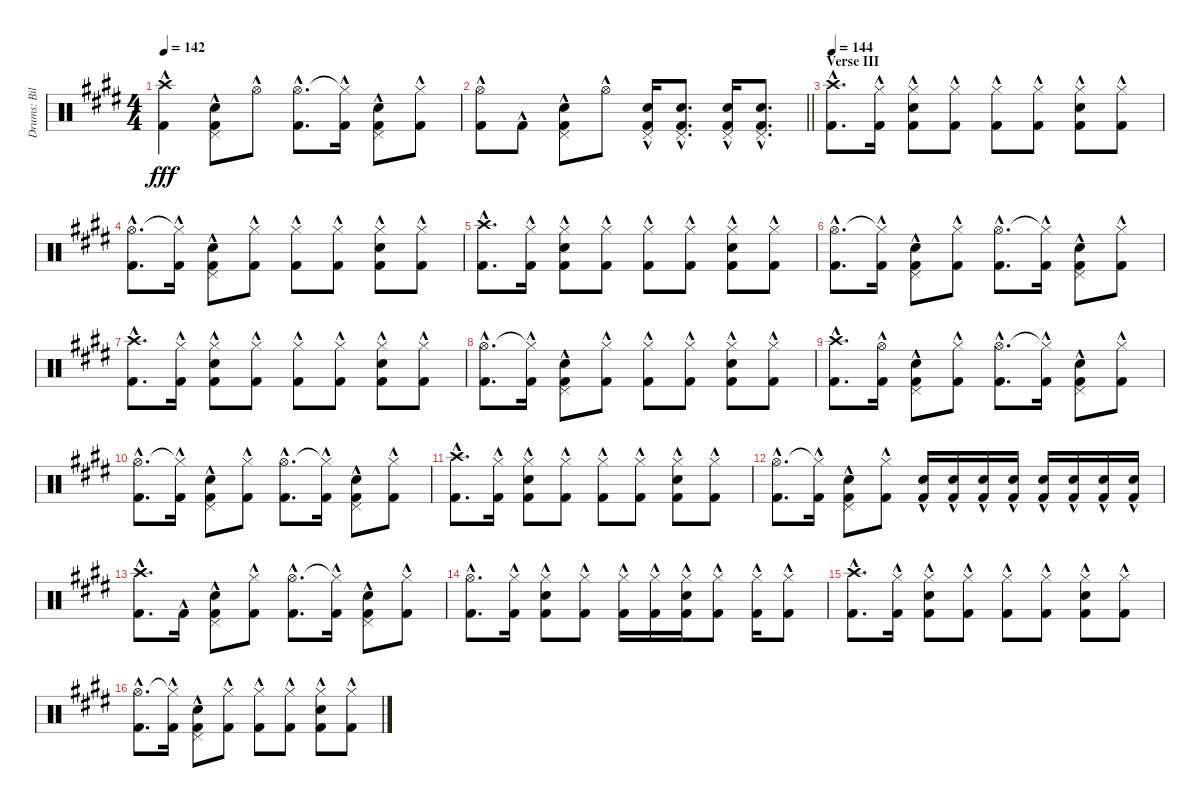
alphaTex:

\track ("Drums: Bill" "Drums: Bil") {instrument percussion}
\staff {score}
\articulation defaults
\ts (4 4)
\tempo 142
\clef neutral
\ks e
("Crash high (hit)"{hac} "Kick (hit) 2"{hac}).4{dy fff} ("Pedal Hi-Hat (hit)"{hac} "Snare (hit) 2"{hac} "Kick (hit) 2"{hac}).8 "Hi-Hat (open)"{hac}.8 ("Hi-Hat (open)"{hac} "Kick (hit) 2"{hac}).8{d} ("Hi-Hat (closed)"{t} "Kick (hit) 2"{hac}).16 ("Pedal Hi-Hat (hit)"{hac} "Snare (hit) 2"{hac} "Kick (hit) 2"{hac}).8 ("Hi-Hat (closed)"{hac} "Kick (hit) 2"{hac}).8 |
\barLineRight lightlight
("Hi-Hat (open)"{hac} "Kick (hit) 2"{hac}).8 "Kick (hit) 2"{hac}.8 ("Pedal Hi-Hat (hit)"{hac} "Snare (hit) 2"{hac} "Kick (hit) 2"{hac}).8 "Hi-Hat (open)"{hac}.8 ("Pedal Hi-Hat (hit)"{hac} "Snare (hit) 2"{hac} "Kick (hit) 2"{hac}).16 ("Pedal Hi-Hat (hit)"{hac} "Snare (hit) 2"{hac} "Kick (hit) 2"{hac}).8{d} ("Pedal Hi-Hat (hit)"{hac} "Snare (hit) 2"{hac} "Kick (hit) 2"{hac}).16 ("Pedal Hi-Hat (hit)"{hac} "Snare (hit) 2"{hac} "Kick (hit) 2"{hac}).8{d} |
\section ("" "Verse III")
\tempo 144
("Crash high (hit)"{hac} "Kick (hit) 2"{hac}).8{d} ("Hi-Hat (closed)"{hac} "Kick (hit) 2"{hac}).16 ("Hi-Hat (closed)"{hac} "Snare (hit) 2"{hac} "Kick (hit) 2"{hac}).8 ("Hi-Hat (closed)"{hac} "Kick (hit) 2"{hac}).8 ("Hi-Hat (closed)"{hac} "Kick (hit) 2"{hac}).8 ("Hi-Hat (closed)"{hac} "Kick (hit) 2"{hac}).8 ("Hi-Hat (closed)"{hac} "Snare (hit) 2"{hac} "Kick (hit) 2"{hac}).8 ("Hi-Hat (closed)"{hac} "Kick (hit) 2"{hac}).8 |
("Hi-Hat (open)"{hac} "Kick (hit) 2"{hac}).8{d} ("Hi-Hat (closed)"{t} "Kick (hit) 2"{hac}).16 ("Pedal Hi-Hat (hit)"{hac} "Snare (hit) 2"{hac} "Kick (hit) 2"{hac}).8 ("Hi-Hat (closed)"{hac} "Kick (hit) 2"{hac}).8 ("Hi-Hat (closed)"{hac} "Kick (hit) 2"{hac}).8 ("Hi-Hat (closed)"{hac} "Kick (hit) 2"{hac}).8 ("Hi-Hat (closed)"{hac} "Snare (hit) 2"{hac} "Kick (hit) 2"{hac}).8 ("Hi-Hat (closed)"{hac} "Kick (hit) 2"{hac}).8 |
("Crash high (hit)"{hac} "Kick (hit) 2"{hac}).8{d} ("Hi-Hat (closed)"{hac} "Kick (hit) 2"{hac}).16 ("Hi-Hat (closed)"{hac} "Snare (hit) 2"{hac} "Kick (hit) 2"{hac}).8 ("Hi-Hat (closed)"{hac} "Kick (hit) 2"{hac}).8 ("Hi-Hat (closed)"{hac} "Kick (hit) 2"{hac}).8 ("Hi-Hat (closed)"{hac} "Kick (hit) 2"{hac}).8 ("Hi-Hat (closed)"{hac} "Snare (hit) 2"{hac} "Kick (hit) 2"{hac}).8 ("Hi-Hat (closed)"{hac} "Kick (hit) 2"{hac}).8 |
("Hi-Hat (open)"{hac} "Kick (hit) 2"{hac}).8{d} ("Hi-Hat (closed)"{t} "Kick (hit) 2"{hac}).16 ("Pedal Hi-Hat (hit)"{hac} "Snare (hit) 2"{hac} "Kick (hit) 2"{hac}).8 ("Hi-Hat (closed)"{hac} "Kick (hit) 2"{hac}).8 ("Hi-Hat (open)"{hac} "Kick (hit) 2"{hac}).8{d} ("Hi-Hat (closed)"{t} "Kick (hit) 2"{hac}).16 ("Pedal Hi-Hat (hit)"{hac} "Snare (hit) 2"{hac} "Kick (hit) 2"{hac}).8 ("Hi-Hat (closed)"{hac} "Kick (hit) 2"{hac}).8 |
("Crash high (hit)"{hac} "Kick (hit) 2"{hac}).8{d} ("Hi-Hat (closed)"{hac} "Kick (hit) 2"{hac}).16 ("Hi-Hat (closed)"{hac} "Snare (hit) 2"{hac} "Kick (hit) 2"{hac}).8 ("Hi-Hat (closed)"{hac} "Kick (hit) 2"{hac}).8 ("Hi-Hat (closed)"{hac} "Kick (hit) 2"{hac}).8 ("Hi-Hat (closed)"{hac} "Kick (hit) 2"{hac}).8 ("Hi-Hat (closed)"{hac} "Snare (hit) 2"{hac} "Kick (hit) 2"{hac}).8 ("Hi-Hat (closed)"{hac} "Kick (hit) 2"{hac}).8 |
("Hi-Hat (open)"{hac} "Kick (hit) 2"{hac}).8{d} ("Hi-Hat (closed)"{t} "Kick (hit) 2"{hac}).16 ("Pedal Hi-Hat (hit)"{hac} "Snare (hit) 2"{hac} "Kick (hit) 2"{hac}).8 ("Hi-Hat (closed)"{hac} "Kick (hit) 2"{hac}).8 ("Hi-Hat (closed)"{hac} "Kick (hit) 2"{hac}).8 ("Hi-Hat (closed)"{hac} "Kick (hit) 2"{hac}).8 ("Hi-Hat (closed)"{hac} "Snare (hit) 2"{hac} "Kick (hit) 2"{hac}).8 ("Hi-Hat (closed)"{hac} "Kick (hit) 2"{hac}).8 |
("Crash high (hit)"{hac} "Kick (hit) 2"{hac}).8{d} ("Hi-Hat (open)"{hac} "Kick (hit) 2"{hac}).16 ("Pedal Hi-Hat (hit)"{hac} "Snare (hit) 2"{hac} "Kick (hit) 2"{hac}).8 ("Hi-Hat (closed)"{hac} "Kick (hit) 2"{hac}).8 ("Hi-Hat (open)"{hac} "Kick (hit) 2"{hac}).8{d} ("Hi-Hat (closed)"{t} "Kick (hit) 2"{hac}).16 ("Pedal Hi-Hat (hit)"{hac} "Snare (hit) 2"{hac} "Kick (hit) 2"{hac}).8 ("Hi-Hat (closed)"{hac} "Kick (hit) 2"{hac}).8 |
("Hi-Hat (open)"{hac} "Kick (hit) 2"{hac}).8{d} ("Hi-Hat (closed)"{t} "Kick (hit) 2"{hac}).16 ("Pedal Hi-Hat (hit)"{hac} "Snare (hit) 2"{hac} "Kick (hit) 2"{hac}).8 ("Hi-Hat (closed)"{hac} "Kick (hit) 2"{hac}).8 ("Hi-Hat (open)"{hac} "Kick (hit) 2"{hac}).8{d} ("Hi-Hat (closed)"{t} "Kick (hit) 2"{hac}).16 ("Pedal Hi-Hat (hit)"{hac} "Snare (hit) 2"{hac} "Kick (hit) 2"{hac}).8 ("Hi-Hat (closed)"{hac} "Kick (hit) 2"{hac}).8 |
("Crash high (hit)"{hac} "Kick (hit) 2"{hac}).8{d} ("Hi-Hat (closed)"{hac} "Kick (hit) 2"{hac}).16 ("Hi-Hat (closed)"{hac} "Snare (hit) 2"{hac} "Kick (hit) 2"{hac}).8 ("Hi-Hat (closed)"{hac} "Kick (hit) 2"{hac}).8 ("Hi-Hat (closed)"{hac} "Kick (hit) 2"{hac}).8 ("Hi-Hat (closed)"{hac} "Kick (hit) 2"{hac}).8 ("Hi-Hat (closed)"{hac} "Snare (hit) 2"{hac} "Kick (hit) 2"{hac}).8 ("Hi-Hat (closed)"{hac} "Kick (hit) 2"{hac}).8 |
("Hi-Hat (open)"{hac} "Kick (hit) 2"{hac}).8{d} ("Hi-Hat (closed)"{t} "Kick (hit) 2"{hac}).16 ("Pedal Hi-Hat (hit)"{hac} "Snare (hit) 2"{hac} "Kick (hit) 2"{hac}).8 ("Hi-Hat (closed)"{hac} "Kick (hit) 2"{hac}).8 ("Snare (hit) 2"{hac} "Kick (hit) 2"{hac}).16 ("Snare (hit) 2"{hac} "Kick (hit) 2"{hac}).16 ("Snare (hit) 2"{hac} "Kick (hit) 2"{hac}).16 ("Snare (hit) 2"{hac} "Kick (hit) 2"{hac}).16 ("Snare (hit) 2"{hac} "Kick (hit) 2"{hac}).16 ("Snare (hit) 2"{hac} "Kick (hit) 2"{hac}).16 ("Snare (hit) 2"{hac} "Kick (hit) 2"{hac}).16 ("Snare (hit) 2"{hac} "Kick (hit) 2"{hac}).16 |
("Crash high (hit)"{hac} "Kick (hit) 2"{hac}).8{d} "Kick (hit) 2"{hac}.16 ("Pedal Hi-Hat (hit)"{hac} "Snare (hit) 2"{hac} "Kick (hit) 2"{hac}).8 ("Hi-Hat (closed)"{hac} "Kick (hit) 2"{hac}).8 ("Hi-Hat (open)"{hac} "Kick (hit) 2"{hac}).8{d} ("Hi-Hat (closed)"{t} "Kick (hit) 2"{hac}).16 ("Pedal Hi-Hat (hit)"{hac} "Snare (hit) 2"{hac} "Kick (hit) 2"{hac}).8 ("Hi-Hat (closed)"{hac} "Kick (hit) 2"{hac}).8 |
("Hi-Hat (open)"{hac} "Kick (hit) 2"{hac}).8{d} ("Hi-Hat (closed)"{hac} "Kick (hit) 2"{hac}).16 ("Hi-Hat (closed)"{hac} "Snare (hit) 2"{hac} "Kick (hit) 2"{hac}).8 ("Hi-Hat (closed)"{hac} "Kick (hit) 2"{hac}).8 ("Hi-Hat (closed)"{hac} "Kick (hit) 2"{hac}).16 ("Hi-Hat (closed)"{hac} "Kick (hit) 2"{hac}).16 ("Hi-Hat (closed)"{hac} "Snare (hit) 2"{hac} "Kick (hit) 2"{hac}).16 ("Hi-Hat (closed)"{hac} "Kick (hit) 2"{hac}).8 ("Hi-Hat (closed)"{hac} "Kick (hit) 2"{hac}).16 ("Hi-Hat (closed)"{hac} "Kick (hit) 2"{hac}).8 |
("Crash high (hit)"{hac} "Kick (hit) 2"{hac}).8{d} ("Hi-Hat (closed)"{hac} "Kick (hit) 2"{hac}).16 ("Hi-Hat (closed)"{hac} "Snare (hit) 2"{hac} "Kick (hit) 2"{hac}).8 ("Hi-Hat (closed)"{hac} "Kick (hit) 2"{hac}).8 ("Hi-Hat (closed)"{hac} "Kick (hit) 2"{hac}).8 ("Hi-Hat (closed)"{hac} "Kick (hit) 2"{hac}).8 ("Hi-Hat (closed)"{hac} "Snare (hit) 2"{hac} "Kick (hit) 2"{hac}).8 ("Hi-Hat (closed)"{hac} "Kick (hit) 2"{hac}).8 |
("Hi-Hat (open)"{hac} "Kick (hit) 2"{hac}).8{d} ("Hi-Hat (closed)"{t} "Kick (hit) 2"{hac}).16 ("Pedal Hi-Hat (hit)"{hac} "Snare (hit) 2"{hac} "Kick (hit) 2"{hac}).8 ("Hi-Hat (closed)"{hac} "Kick (hit) 2"{hac}).8 ("Hi-Hat (closed)"{hac} "Kick (hit) 2"{hac}).8 ("Hi-Hat (closed)"{hac} "Kick (hit) 2"{hac}).8 ("Hi-Hat (closed)"{hac} "Snare (hit) 2"{hac} "Kick (hit) 2"{hac}).8 ("Hi-Hat (closed)"{hac} "Kick (hit) 2"{hac}).8
